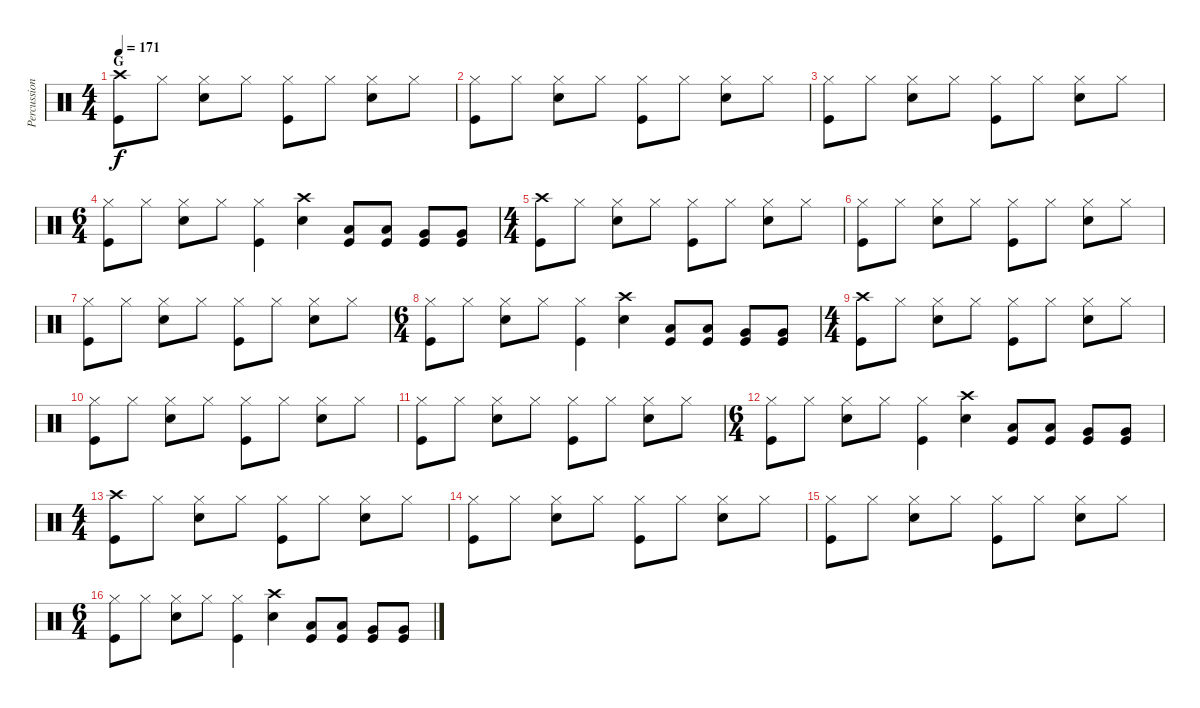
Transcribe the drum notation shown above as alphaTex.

\track ("Percussions" "Percussion") {instrument percussion}
\staff {score}
\articulation defaults
\ts (4 4)
\section ("" "G")
\tempo 171
\clef neutral
\ks c
("Crash high (hit)" "Kick (hit)").8{dy f} "Hi-Hat (closed)".8 ("Hi-Hat (closed)" "Electric Snare (hit)").8 "Hi-Hat (closed)".8 ("Hi-Hat (closed)" "Kick (hit)").8 "Hi-Hat (closed)".8 ("Hi-Hat (closed)" "Electric Snare (hit)").8 "Hi-Hat (closed)".8 |
("Hi-Hat (closed)" "Kick (hit)").8 "Hi-Hat (closed)".8 ("Hi-Hat (closed)" "Electric Snare (hit)").8 "Hi-Hat (closed)".8 ("Hi-Hat (closed)" "Kick (hit)").8 "Hi-Hat (closed)".8 ("Hi-Hat (closed)" "Electric Snare (hit)").8 "Hi-Hat (closed)".8 |
("Hi-Hat (closed)" "Kick (hit)").8 "Hi-Hat (closed)".8 ("Hi-Hat (closed)" "Electric Snare (hit)").8 "Hi-Hat (closed)".8 ("Hi-Hat (closed)" "Kick (hit)").8 "Hi-Hat (closed)".8 ("Hi-Hat (closed)" "Electric Snare (hit)").8 "Hi-Hat (closed)".8 |
\ts (6 4)
("Hi-Hat (closed)" "Kick (hit)").8 "Hi-Hat (closed)".8 ("Hi-Hat (closed)" "Electric Snare (hit)").8 "Hi-Hat (closed)".8 ("Hi-Hat (closed)" "Kick (hit)").4 ("Crash high (hit)" "Electric Snare (hit)").4 ("Low Tom (hit)" "Kick (hit)").8 ("Low Tom (hit)" "Kick (hit)").8 ("Very Low Tom (hit)" "Kick (hit)").8 ("Very Low Tom (hit)" "Kick (hit)").8 |
\ts (4 4)
("Crash high (hit)" "Kick (hit)").8 "Hi-Hat (closed)".8 ("Hi-Hat (closed)" "Electric Snare (hit)").8 "Hi-Hat (closed)".8 ("Hi-Hat (closed)" "Kick (hit)").8 "Hi-Hat (closed)".8 ("Hi-Hat (closed)" "Electric Snare (hit)").8 "Hi-Hat (closed)".8 |
("Hi-Hat (closed)" "Kick (hit)").8 "Hi-Hat (closed)".8 ("Hi-Hat (closed)" "Electric Snare (hit)").8 "Hi-Hat (closed)".8 ("Hi-Hat (closed)" "Kick (hit)").8 "Hi-Hat (closed)".8 ("Hi-Hat (closed)" "Electric Snare (hit)").8 "Hi-Hat (closed)".8 |
("Hi-Hat (closed)" "Kick (hit)").8 "Hi-Hat (closed)".8 ("Hi-Hat (closed)" "Electric Snare (hit)").8 "Hi-Hat (closed)".8 ("Hi-Hat (closed)" "Kick (hit)").8 "Hi-Hat (closed)".8 ("Hi-Hat (closed)" "Electric Snare (hit)").8 "Hi-Hat (closed)".8 |
\ts (6 4)
("Hi-Hat (closed)" "Kick (hit)").8 "Hi-Hat (closed)".8 ("Hi-Hat (closed)" "Electric Snare (hit)").8 "Hi-Hat (closed)".8 ("Hi-Hat (closed)" "Kick (hit)").4 ("Crash high (hit)" "Electric Snare (hit)").4 ("Low Tom (hit)" "Kick (hit)").8 ("Low Tom (hit)" "Kick (hit)").8 ("Very Low Tom (hit)" "Kick (hit)").8 ("Very Low Tom (hit)" "Kick (hit)").8 |
\ts (4 4)
("Crash high (hit)" "Kick (hit)").8 "Hi-Hat (closed)".8 ("Hi-Hat (closed)" "Electric Snare (hit)").8 "Hi-Hat (closed)".8 ("Hi-Hat (closed)" "Kick (hit)").8 "Hi-Hat (closed)".8 ("Hi-Hat (closed)" "Electric Snare (hit)").8 "Hi-Hat (closed)".8 |
("Hi-Hat (closed)" "Kick (hit)").8 "Hi-Hat (closed)".8 ("Hi-Hat (closed)" "Electric Snare (hit)").8 "Hi-Hat (closed)".8 ("Hi-Hat (closed)" "Kick (hit)").8 "Hi-Hat (closed)".8 ("Hi-Hat (closed)" "Electric Snare (hit)").8 "Hi-Hat (closed)".8 |
("Hi-Hat (closed)" "Kick (hit)").8 "Hi-Hat (closed)".8 ("Hi-Hat (closed)" "Electric Snare (hit)").8 "Hi-Hat (closed)".8 ("Hi-Hat (closed)" "Kick (hit)").8 "Hi-Hat (closed)".8 ("Hi-Hat (closed)" "Electric Snare (hit)").8 "Hi-Hat (closed)".8 |
\ts (6 4)
("Hi-Hat (closed)" "Kick (hit)").8 "Hi-Hat (closed)".8 ("Hi-Hat (closed)" "Electric Snare (hit)").8 "Hi-Hat (closed)".8 ("Hi-Hat (closed)" "Kick (hit)").4 ("Crash high (hit)" "Electric Snare (hit)").4 ("Low Tom (hit)" "Kick (hit)").8 ("Low Tom (hit)" "Kick (hit)").8 ("Very Low Tom (hit)" "Kick (hit)").8 ("Very Low Tom (hit)" "Kick (hit)").8 |
\ts (4 4)
("Crash high (hit)" "Kick (hit)").8 "Hi-Hat (closed)".8 ("Hi-Hat (closed)" "Electric Snare (hit)").8 "Hi-Hat (closed)".8 ("Hi-Hat (closed)" "Kick (hit)").8 "Hi-Hat (closed)".8 ("Hi-Hat (closed)" "Electric Snare (hit)").8 "Hi-Hat (closed)".8 |
("Hi-Hat (closed)" "Kick (hit)").8 "Hi-Hat (closed)".8 ("Hi-Hat (closed)" "Electric Snare (hit)").8 "Hi-Hat (closed)".8 ("Hi-Hat (closed)" "Kick (hit)").8 "Hi-Hat (closed)".8 ("Hi-Hat (closed)" "Electric Snare (hit)").8 "Hi-Hat (closed)".8 |
("Hi-Hat (closed)" "Kick (hit)").8 "Hi-Hat (closed)".8 ("Hi-Hat (closed)" "Electric Snare (hit)").8 "Hi-Hat (closed)".8 ("Hi-Hat (closed)" "Kick (hit)").8 "Hi-Hat (closed)".8 ("Hi-Hat (closed)" "Electric Snare (hit)").8 "Hi-Hat (closed)".8 |
\ts (6 4)
("Hi-Hat (closed)" "Kick (hit)").8 "Hi-Hat (closed)".8 ("Hi-Hat (closed)" "Electric Snare (hit)").8 "Hi-Hat (closed)".8 ("Hi-Hat (closed)" "Kick (hit)").4 ("Crash high (hit)" "Electric Snare (hit)").4 ("Low Tom (hit)" "Kick (hit)").8 ("Low Tom (hit)" "Kick (hit)").8 ("Very Low Tom (hit)" "Kick (hit)").8 ("Very Low Tom (hit)" "Kick (hit)").8
